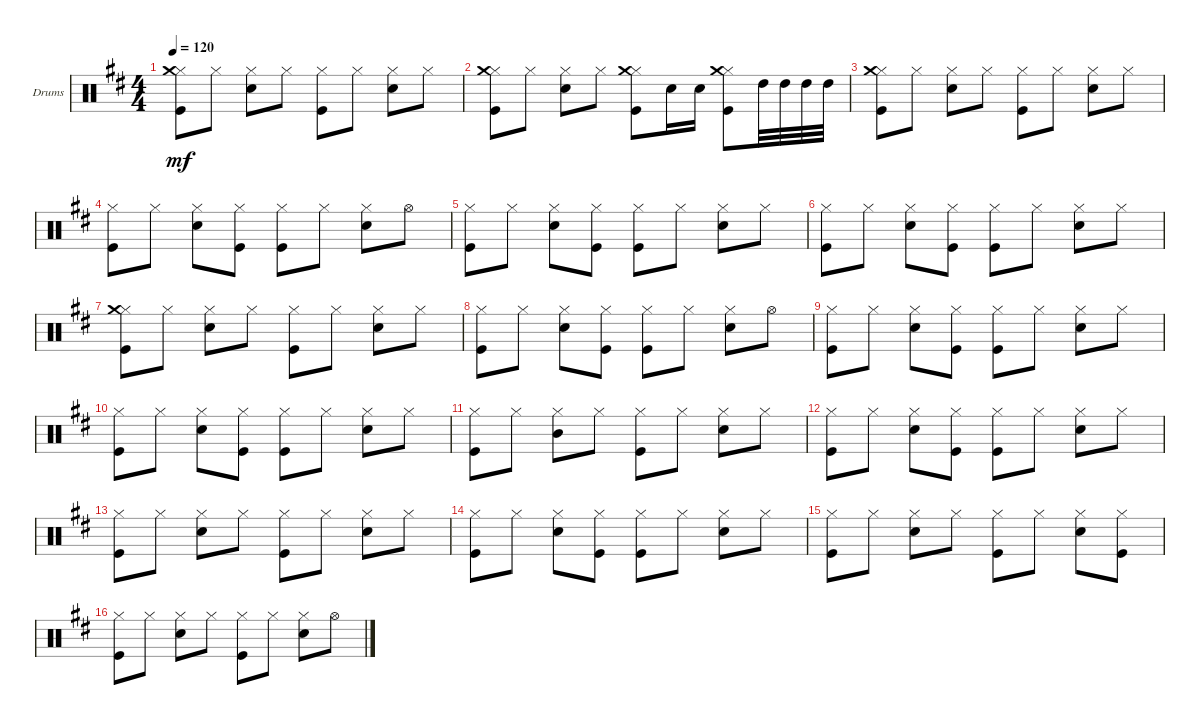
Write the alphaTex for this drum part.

\defaultSystemsLayout 4
\bracketExtendMode groupsimilarinstruments
\firstSystemTrackNameOrientation horizontal
\otherSystemsTrackNameOrientation horizontal
\track ("Drumkit" "Drums") {instrument percussion}
\staff {score}
\articulation defaults
\ts (4 4)
\tempo 120
\clef neutral
\ks d
("Hi-Hat (closed)" "Crash medium (hit)" "Kick (hit)").8{dy mf} "Hi-Hat (closed)".8 ("Hi-Hat (closed)" "Snare (hit) 2").8 "Hi-Hat (closed)".8 ("Hi-Hat (closed)" "Kick (hit)").8 "Hi-Hat (closed)".8 ("Hi-Hat (closed)" "Snare (hit) 2").8 "Hi-Hat (closed)".8 |
("Kick (hit)" "Hi-Hat (closed)" "Crash medium (hit)").8 "Hi-Hat (closed)".8 ("Hi-Hat (closed)" "Snare (hit) 2").8 "Hi-Hat (closed)".8 ("Hi-Hat (closed)" "Crash medium (hit)" "Kick (hit)").8 "Snare (hit) 2".16 "Snare (hit) 2".16 ("Hi-Hat (closed)" "Crash medium (hit)" "Kick (hit)").8 "High Tom (hit)".32 "High Tom (hit)".32 "High Tom (hit)".32 "High Tom (hit)".32 |
("Hi-Hat (closed)" "Crash medium (hit)" "Kick (hit)").8 "Hi-Hat (closed)".8 ("Hi-Hat (closed)" "Snare (hit) 2").8 "Hi-Hat (closed)".8 ("Hi-Hat (closed)" "Kick (hit)").8 "Hi-Hat (closed)".8 ("Hi-Hat (closed)" "Snare (hit) 2").8 "Hi-Hat (closed)".8 |
("Hi-Hat (closed)" "Kick (hit)").8 "Hi-Hat (closed)".8 ("Hi-Hat (closed)" "Snare (hit) 2").8 ("Kick (hit)" "Hi-Hat (closed)").8 ("Hi-Hat (closed)" "Kick (hit)").8 "Hi-Hat (closed)".8 ("Hi-Hat (closed)" "Snare (hit) 2").8 "Hi-Hat (open)".8 |
("Hi-Hat (closed)" "Kick (hit)").8 "Hi-Hat (closed)".8 ("Hi-Hat (closed)" "Snare (hit) 2").8 ("Kick (hit)" "Hi-Hat (closed)").8 ("Hi-Hat (closed)" "Kick (hit)").8 "Hi-Hat (closed)".8 ("Hi-Hat (closed)" "Snare (hit) 2").8 "Hi-Hat (closed)".8 |
("Hi-Hat (closed)" "Kick (hit)").8 "Hi-Hat (closed)".8 ("Hi-Hat (closed)" "Snare (hit) 2").8 ("Kick (hit)" "Hi-Hat (closed)").8 ("Hi-Hat (closed)" "Kick (hit)").8 "Hi-Hat (closed)".8 ("Hi-Hat (closed)" "Snare (hit) 2").8 "Hi-Hat (closed)".8 |
("Hi-Hat (closed)" "Crash medium (hit)" "Kick (hit)").8 "Hi-Hat (closed)".8 ("Hi-Hat (closed)" "Snare (hit) 2").8 "Hi-Hat (closed)".8 ("Hi-Hat (closed)" "Kick (hit)").8 "Hi-Hat (closed)".8 ("Hi-Hat (closed)" "Snare (hit) 2").8 "Hi-Hat (closed)".8 |
("Hi-Hat (closed)" "Kick (hit)").8 "Hi-Hat (closed)".8 ("Hi-Hat (closed)" "Snare (hit) 2").8 ("Kick (hit)" "Hi-Hat (closed)").8 ("Hi-Hat (closed)" "Kick (hit)").8 "Hi-Hat (closed)".8 ("Hi-Hat (closed)" "Snare (hit) 2").8 "Hi-Hat (open)".8 |
("Hi-Hat (closed)" "Kick (hit)").8 "Hi-Hat (closed)".8 ("Hi-Hat (closed)" "Snare (hit) 2").8 ("Kick (hit)" "Hi-Hat (closed)").8 ("Hi-Hat (closed)" "Kick (hit)").8 "Hi-Hat (closed)".8 ("Hi-Hat (closed)" "Snare (hit) 2").8 "Hi-Hat (closed)".8 |
("Hi-Hat (closed)" "Kick (hit)").8 "Hi-Hat (closed)".8 ("Hi-Hat (closed)" "Snare (hit) 2").8 ("Kick (hit)" "Hi-Hat (closed)").8 ("Hi-Hat (closed)" "Kick (hit)").8 "Hi-Hat (closed)".8 ("Hi-Hat (closed)" "Snare (hit) 2").8 "Hi-Hat (closed)".8 |
("Hi-Hat (closed)" "Kick (hit)").8 "Hi-Hat (closed)".8 ("Hi-Hat (closed)" "Mid Tom (hit)").8 "Hi-Hat (closed)".8 ("Hi-Hat (closed)" "Kick (hit)").8 "Hi-Hat (closed)".8 ("Snare (hit) 2" "Hi-Hat (closed)").8 "Hi-Hat (closed)".8 |
("Hi-Hat (closed)" "Kick (hit)").8 "Hi-Hat (closed)".8 ("Hi-Hat (closed)" "Snare (hit) 2").8 ("Hi-Hat (closed)" "Kick (hit)").8 ("Hi-Hat (closed)" "Kick (hit)").8 "Hi-Hat (closed)".8 ("Hi-Hat (closed)" "Snare (hit) 2").8 "Hi-Hat (closed)".8 |
("Kick (hit)" "Hi-Hat (closed)").8 "Hi-Hat (closed)".8 ("Hi-Hat (closed)" "Snare (hit) 2").8 "Hi-Hat (closed)".8 ("Hi-Hat (closed)" "Kick (hit)").8 "Hi-Hat (closed)".8 ("Hi-Hat (closed)" "Snare (hit) 2").8 "Hi-Hat (closed)".8 |
("Kick (hit)" "Hi-Hat (closed)").8 "Hi-Hat (closed)".8 ("Hi-Hat (closed)" "Snare (hit) 2").8 ("Kick (hit)" "Hi-Hat (closed)").8 ("Hi-Hat (closed)" "Kick (hit)").8 "Hi-Hat (closed)".8 ("Hi-Hat (closed)" "Snare (hit) 2").8 "Hi-Hat (closed)".8 |
("Hi-Hat (closed)" "Kick (hit)").8 "Hi-Hat (closed)".8 ("Hi-Hat (closed)" "Snare (hit) 2").8 "Hi-Hat (closed)".8 ("Hi-Hat (closed)" "Kick (hit)").8 "Hi-Hat (closed)".8 ("Hi-Hat (closed)" "Snare (hit) 2").8 ("Kick (hit)" "Hi-Hat (closed)").8 |
("Hi-Hat (closed)" "Kick (hit)").8 "Hi-Hat (closed)".8 ("Hi-Hat (closed)" "Snare (hit) 2").8 "Hi-Hat (closed)".8 ("Hi-Hat (closed)" "Kick (hit)").8 "Hi-Hat (closed)".8 ("Hi-Hat (closed)" "Snare (hit) 2").8 "Hi-Hat (open)".8
